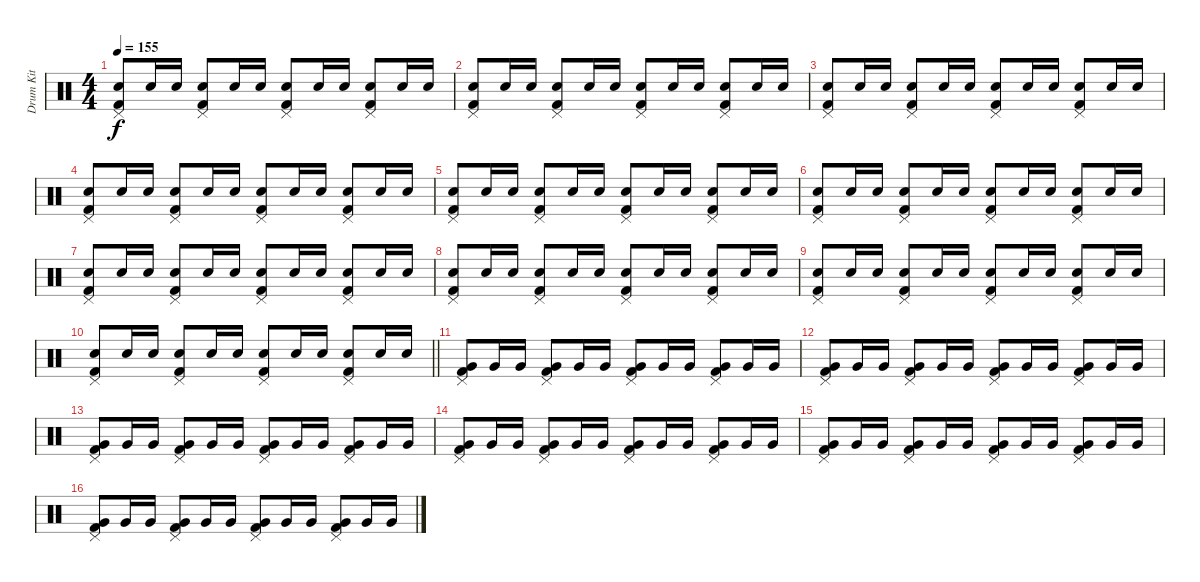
\track ("Drum Kit" "Drum Kit") {instrument percussion}
\staff {score}
\articulation defaults
\ts (4 4)
\tempo 155
\clef neutral
\ks c
("Pedal Hi-Hat (hit)" "Snare (hit) 2" "Kick (hit) 2").8{dy f} "Snare (hit) 2".16 "Snare (hit) 2".16 ("Pedal Hi-Hat (hit)" "Snare (hit) 2" "Kick (hit) 2").8 "Snare (hit) 2".16 "Snare (hit) 2".16 ("Pedal Hi-Hat (hit)" "Snare (hit) 2" "Kick (hit) 2").8 "Snare (hit) 2".16 "Snare (hit) 2".16 ("Pedal Hi-Hat (hit)" "Snare (hit) 2" "Kick (hit) 2").8 "Snare (hit) 2".16 "Snare (hit) 2".16 |
("Pedal Hi-Hat (hit)" "Snare (hit) 2" "Kick (hit) 2").8 "Snare (hit) 2".16 "Snare (hit) 2".16 ("Pedal Hi-Hat (hit)" "Snare (hit) 2" "Kick (hit) 2").8 "Snare (hit) 2".16 "Snare (hit) 2".16 ("Pedal Hi-Hat (hit)" "Snare (hit) 2" "Kick (hit) 2").8 "Snare (hit) 2".16 "Snare (hit) 2".16 ("Pedal Hi-Hat (hit)" "Snare (hit) 2" "Kick (hit) 2").8 "Snare (hit) 2".16 "Snare (hit) 2".16 |
("Pedal Hi-Hat (hit)" "Snare (hit) 2" "Kick (hit) 2").8 "Snare (hit) 2".16 "Snare (hit) 2".16 ("Pedal Hi-Hat (hit)" "Snare (hit) 2" "Kick (hit) 2").8 "Snare (hit) 2".16 "Snare (hit) 2".16 ("Pedal Hi-Hat (hit)" "Snare (hit) 2" "Kick (hit) 2").8 "Snare (hit) 2".16 "Snare (hit) 2".16 ("Pedal Hi-Hat (hit)" "Snare (hit) 2" "Kick (hit) 2").8 "Snare (hit) 2".16 "Snare (hit) 2".16 |
("Pedal Hi-Hat (hit)" "Snare (hit) 2" "Kick (hit) 2").8 "Snare (hit) 2".16 "Snare (hit) 2".16 ("Pedal Hi-Hat (hit)" "Snare (hit) 2" "Kick (hit) 2").8 "Snare (hit) 2".16 "Snare (hit) 2".16 ("Pedal Hi-Hat (hit)" "Snare (hit) 2" "Kick (hit) 2").8 "Snare (hit) 2".16 "Snare (hit) 2".16 ("Pedal Hi-Hat (hit)" "Snare (hit) 2" "Kick (hit) 2").8 "Snare (hit) 2".16 "Snare (hit) 2".16 |
("Pedal Hi-Hat (hit)" "Snare (hit) 2" "Kick (hit) 2").8 "Snare (hit) 2".16 "Snare (hit) 2".16 ("Pedal Hi-Hat (hit)" "Snare (hit) 2" "Kick (hit) 2").8 "Snare (hit) 2".16 "Snare (hit) 2".16 ("Pedal Hi-Hat (hit)" "Snare (hit) 2" "Kick (hit) 2").8 "Snare (hit) 2".16 "Snare (hit) 2".16 ("Pedal Hi-Hat (hit)" "Snare (hit) 2" "Kick (hit) 2").8 "Snare (hit) 2".16 "Snare (hit) 2".16 |
("Pedal Hi-Hat (hit)" "Snare (hit) 2" "Kick (hit) 2").8 "Snare (hit) 2".16 "Snare (hit) 2".16 ("Pedal Hi-Hat (hit)" "Snare (hit) 2" "Kick (hit) 2").8 "Snare (hit) 2".16 "Snare (hit) 2".16 ("Pedal Hi-Hat (hit)" "Snare (hit) 2" "Kick (hit) 2").8 "Snare (hit) 2".16 "Snare (hit) 2".16 ("Pedal Hi-Hat (hit)" "Snare (hit) 2" "Kick (hit) 2").8 "Snare (hit) 2".16 "Snare (hit) 2".16 |
("Pedal Hi-Hat (hit)" "Snare (hit) 2" "Kick (hit) 2").8 "Snare (hit) 2".16 "Snare (hit) 2".16 ("Pedal Hi-Hat (hit)" "Snare (hit) 2" "Kick (hit) 2").8 "Snare (hit) 2".16 "Snare (hit) 2".16 ("Pedal Hi-Hat (hit)" "Snare (hit) 2" "Kick (hit) 2").8 "Snare (hit) 2".16 "Snare (hit) 2".16 ("Pedal Hi-Hat (hit)" "Snare (hit) 2" "Kick (hit) 2").8 "Snare (hit) 2".16 "Snare (hit) 2".16 |
("Pedal Hi-Hat (hit)" "Snare (hit) 2" "Kick (hit) 2").8 "Snare (hit) 2".16 "Snare (hit) 2".16 ("Pedal Hi-Hat (hit)" "Snare (hit) 2" "Kick (hit) 2").8 "Snare (hit) 2".16 "Snare (hit) 2".16 ("Pedal Hi-Hat (hit)" "Snare (hit) 2" "Kick (hit) 2").8 "Snare (hit) 2".16 "Snare (hit) 2".16 ("Pedal Hi-Hat (hit)" "Snare (hit) 2" "Kick (hit) 2").8 "Snare (hit) 2".16 "Snare (hit) 2".16 |
("Pedal Hi-Hat (hit)" "Snare (hit) 2" "Kick (hit) 2").8 "Snare (hit) 2".16 "Snare (hit) 2".16 ("Pedal Hi-Hat (hit)" "Snare (hit) 2" "Kick (hit) 2").8 "Snare (hit) 2".16 "Snare (hit) 2".16 ("Pedal Hi-Hat (hit)" "Snare (hit) 2" "Kick (hit) 2").8 "Snare (hit) 2".16 "Snare (hit) 2".16 ("Pedal Hi-Hat (hit)" "Snare (hit) 2" "Kick (hit) 2").8 "Snare (hit) 2".16 "Snare (hit) 2".16 |
\barLineRight lightlight
("Pedal Hi-Hat (hit)" "Snare (hit) 2" "Kick (hit) 2").8 "Snare (hit) 2".16 "Snare (hit) 2".16 ("Pedal Hi-Hat (hit)" "Snare (hit) 2" "Kick (hit) 2").8 "Snare (hit) 2".16 "Snare (hit) 2".16 ("Pedal Hi-Hat (hit)" "Snare (hit) 2" "Kick (hit) 2").8 "Snare (hit) 2".16 "Snare (hit) 2".16 ("Pedal Hi-Hat (hit)" "Snare (hit) 2" "Kick (hit) 2").8 "Snare (hit) 2".16 "Snare (hit) 2".16 |
("Pedal Hi-Hat (hit)" "Very Low Tom (hit)" "Kick (hit) 2").8{volume 12} "Very Low Tom (hit)".16 "Very Low Tom (hit)".16 ("Pedal Hi-Hat (hit)" "Very Low Tom (hit)" "Kick (hit) 2").8 "Very Low Tom (hit)".16 "Very Low Tom (hit)".16 ("Pedal Hi-Hat (hit)" "Very Low Tom (hit)" "Kick (hit) 2").8 "Very Low Tom (hit)".16 "Very Low Tom (hit)".16 ("Pedal Hi-Hat (hit)" "Very Low Tom (hit)" "Kick (hit) 2").8 "Very Low Tom (hit)".16 "Very Low Tom (hit)".16 |
("Pedal Hi-Hat (hit)" "Very Low Tom (hit)" "Kick (hit) 2").8 "Very Low Tom (hit)".16 "Very Low Tom (hit)".16 ("Pedal Hi-Hat (hit)" "Very Low Tom (hit)" "Kick (hit) 2").8 "Very Low Tom (hit)".16 "Very Low Tom (hit)".16 ("Pedal Hi-Hat (hit)" "Very Low Tom (hit)" "Kick (hit) 2").8 "Very Low Tom (hit)".16 "Very Low Tom (hit)".16 ("Pedal Hi-Hat (hit)" "Very Low Tom (hit)" "Kick (hit) 2").8 "Very Low Tom (hit)".16 "Very Low Tom (hit)".16 |
("Pedal Hi-Hat (hit)" "Very Low Tom (hit)" "Kick (hit) 2").8 "Very Low Tom (hit)".16 "Very Low Tom (hit)".16 ("Pedal Hi-Hat (hit)" "Very Low Tom (hit)" "Kick (hit) 2").8 "Very Low Tom (hit)".16 "Very Low Tom (hit)".16 ("Pedal Hi-Hat (hit)" "Very Low Tom (hit)" "Kick (hit) 2").8 "Very Low Tom (hit)".16 "Very Low Tom (hit)".16 ("Pedal Hi-Hat (hit)" "Very Low Tom (hit)" "Kick (hit) 2").8 "Very Low Tom (hit)".16 "Very Low Tom (hit)".16 |
("Pedal Hi-Hat (hit)" "Very Low Tom (hit)" "Kick (hit) 2").8 "Very Low Tom (hit)".16 "Very Low Tom (hit)".16 ("Pedal Hi-Hat (hit)" "Very Low Tom (hit)" "Kick (hit) 2").8 "Very Low Tom (hit)".16 "Very Low Tom (hit)".16 ("Pedal Hi-Hat (hit)" "Very Low Tom (hit)" "Kick (hit) 2").8 "Very Low Tom (hit)".16 "Very Low Tom (hit)".16 ("Pedal Hi-Hat (hit)" "Very Low Tom (hit)" "Kick (hit) 2").8 "Very Low Tom (hit)".16 "Very Low Tom (hit)".16 |
("Pedal Hi-Hat (hit)" "Very Low Tom (hit)" "Kick (hit) 2").8 "Very Low Tom (hit)".16 "Very Low Tom (hit)".16 ("Pedal Hi-Hat (hit)" "Very Low Tom (hit)" "Kick (hit) 2").8 "Very Low Tom (hit)".16 "Very Low Tom (hit)".16 ("Pedal Hi-Hat (hit)" "Very Low Tom (hit)" "Kick (hit) 2").8 "Very Low Tom (hit)".16 "Very Low Tom (hit)".16 ("Pedal Hi-Hat (hit)" "Very Low Tom (hit)" "Kick (hit) 2").8 "Very Low Tom (hit)".16 "Very Low Tom (hit)".16 |
("Pedal Hi-Hat (hit)" "Very Low Tom (hit)" "Kick (hit) 2").8 "Very Low Tom (hit)".16 "Very Low Tom (hit)".16 ("Pedal Hi-Hat (hit)" "Very Low Tom (hit)" "Kick (hit) 2").8 "Very Low Tom (hit)".16 "Very Low Tom (hit)".16 ("Pedal Hi-Hat (hit)" "Very Low Tom (hit)" "Kick (hit) 2").8 "Very Low Tom (hit)".16 "Very Low Tom (hit)".16 ("Pedal Hi-Hat (hit)" "Very Low Tom (hit)" "Kick (hit) 2").8 "Very Low Tom (hit)".16 "Very Low Tom (hit)".16
